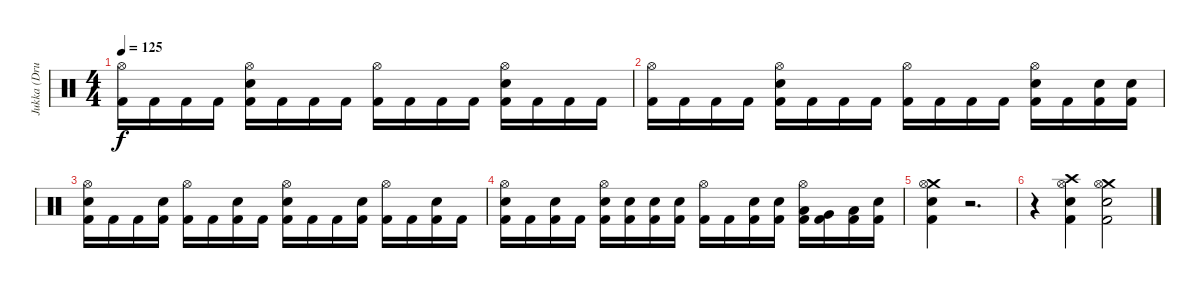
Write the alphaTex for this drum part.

\track ("Jukka (Drums)" "Jukka (Dru") {instrument percussion}
\staff {score}
\articulation defaults
\ts (4 4)
\tempo 125
\clef neutral
\ks c
("Hi-Hat (open)" "Kick (hit) 2").16{dy f} "Kick (hit) 2".16 "Kick (hit) 2".16 "Kick (hit) 2".16 ("Hi-Hat (open)" "Electric Snare (hit)" "Kick (hit) 2").16 "Kick (hit) 2".16 "Kick (hit) 2".16 "Kick (hit) 2".16 ("Hi-Hat (open)" "Kick (hit) 2").16 "Kick (hit) 2".16 "Kick (hit) 2".16 "Kick (hit) 2".16 ("Hi-Hat (open)" "Electric Snare (hit)" "Kick (hit) 2").16 "Kick (hit) 2".16 "Kick (hit) 2".16 "Kick (hit) 2".16 |
("Hi-Hat (open)" "Kick (hit) 2").16 "Kick (hit) 2".16 "Kick (hit) 2".16 "Kick (hit) 2".16 ("Hi-Hat (open)" "Electric Snare (hit)" "Kick (hit) 2").16 "Kick (hit) 2".16 "Kick (hit) 2".16 "Kick (hit) 2".16 ("Hi-Hat (open)" "Kick (hit) 2").16 "Kick (hit) 2".16 "Kick (hit) 2".16 "Kick (hit) 2".16 ("Hi-Hat (open)" "Electric Snare (hit)" "Kick (hit) 2").16 "Kick (hit) 2".16 ("Electric Snare (hit)" "Kick (hit) 2").16 ("Electric Snare (hit)" "Kick (hit) 2").16 |
("Hi-Hat (open)" "Electric Snare (hit)" "Kick (hit) 2").16 "Kick (hit) 2".16 "Kick (hit) 2".16 ("Electric Snare (hit)" "Kick (hit) 2").16 ("Hi-Hat (open)" "Kick (hit) 2").16 "Kick (hit) 2".16 ("Electric Snare (hit)" "Kick (hit) 2").16 "Kick (hit) 2".16 ("Hi-Hat (open)" "Electric Snare (hit)" "Kick (hit) 2").16 "Kick (hit) 2".16 "Kick (hit) 2".16 ("Electric Snare (hit)" "Kick (hit) 2").16 ("Hi-Hat (open)" "Kick (hit) 2").16 "Kick (hit) 2".16 ("Electric Snare (hit)" "Kick (hit) 2").16 "Kick (hit) 2".16 |
("Hi-Hat (open)" "Electric Snare (hit)" "Kick (hit) 2").16 "Kick (hit) 2".16 ("Electric Snare (hit)" "Kick (hit) 2").16 "Kick (hit) 2".16 ("Hi-Hat (open)" "Electric Snare (hit)" "Kick (hit) 2").16 ("Electric Snare (hit)" "Kick (hit) 2").16 ("Electric Snare (hit)" "Kick (hit) 2").16 ("Electric Snare (hit)" "Kick (hit) 2").16 ("Hi-Hat (open)" "Kick (hit) 2").16 "Kick (hit) 2".16 ("Electric Snare (hit)" "Kick (hit) 2").16 ("Electric Snare (hit)" "Kick (hit) 2").16 ("Hi-Hat (open)" "Low Tom (hit)" "Kick (hit) 2").16 ("Very Low Tom (hit)" "Kick (hit) 2").16 ("Low Floor Tom (hit)" "Kick (hit) 2").16 ("Electric Snare (hit)" "Kick (hit) 2").16 |
("Crash medium (hit)" "Hi-Hat (open)" "Electric Snare (hit)" "Kick (hit) 2").4 r.2{d} |
r.4 ("Crash high (hit)" "Hi-Hat (open)" "Electric Snare (hit)" "Kick (hit) 2").4 ("Crash medium (hit)" "Hi-Hat (open)" "Electric Snare (hit)" "Kick (hit) 2").2
